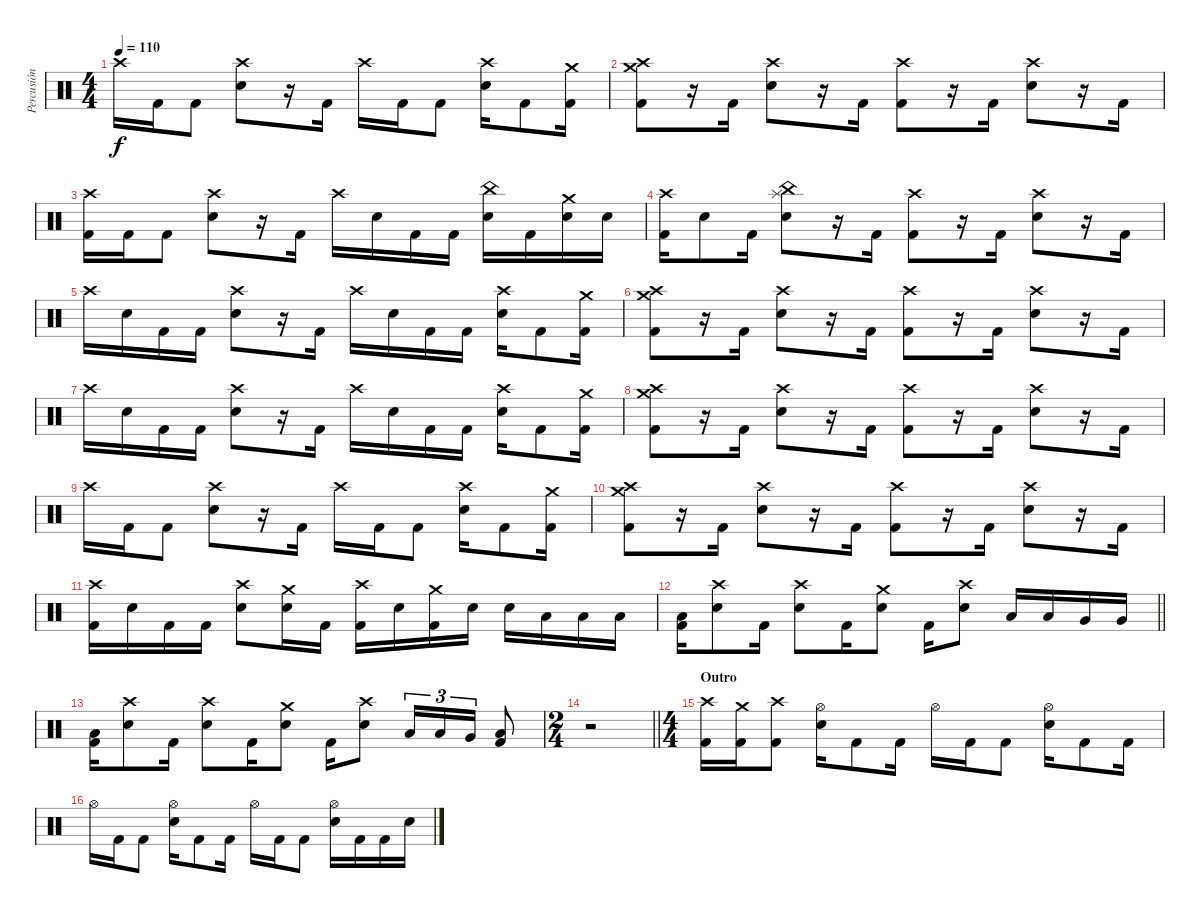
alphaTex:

\track ("Percusión" "Percusión") {instrument percussion}
\staff {score}
\articulation defaults
\ts (4 4)
\tempo 110
\clef neutral
\ks c "Crash high (hit)".16{dy f} "Kick (hit) 2".16 "Kick (hit) 2".8
("Crash high (hit)" "Snare (hit) 2").8 r.16 "Kick (hit) 2".16 "Crash high (hit)".16 "Kick (hit) 2".16 "Kick (hit) 2".8 ("Crash high (hit)" "Snare (hit) 2").16 "Kick (hit) 2".8 ("Crash medium (hit)" "Kick (hit) 2").16 |
("Crash high (hit)" "Crash medium (hit)" "Kick (hit) 2").8 r.16 "Kick (hit) 2".16 ("Crash high (hit)" "Snare (hit) 2").8 r.16 "Kick (hit) 2".16 ("Crash high (hit)" "Kick (hit) 2").8 r.16 "Kick (hit) 2".16 ("Crash high (hit)" "Snare (hit) 2").8 r.16 "Kick (hit) 2".16 |
("Crash high (hit)" "Kick (hit) 2").16 "Kick (hit) 2".16 "Kick (hit) 2".8 ("Crash high (hit)" "Snare (hit) 2").8 r.16 "Kick (hit) 2".16 "Crash high (hit)".16 "Snare (hit) 2".16 "Kick (hit) 2".16 "Kick (hit) 2".16 ("China (hit)" "Snare (hit) 2").16 "Kick (hit) 2".16 ("Crash medium (hit)" "Snare (hit) 2").16 "Snare (hit) 2".16 |
("Crash high (hit)" "Kick (hit) 2").16 "Snare (hit) 2".8 "Kick (hit) 2".16 ("Splash (hit)" "China (hit)" "Snare (hit) 2").8 r.16 "Kick (hit) 2".16 ("Crash high (hit)" "Kick (hit) 2").8 r.16 "Kick (hit) 2".16 ("Crash high (hit)" "Snare (hit) 2").8 r.16 "Kick (hit) 2".16 |
"Crash high (hit)".16 "Snare (hit) 2".16 "Kick (hit) 2".16 "Kick (hit) 2".16 ("Crash high (hit)" "Snare (hit) 2").8 r.16 "Kick (hit) 2".16 "Crash high (hit)".16 "Snare (hit) 2".16 "Kick (hit) 2".16 "Kick (hit) 2".16 ("Crash high (hit)" "Snare (hit) 2").16 "Kick (hit) 2".8 ("Crash medium (hit)" "Kick (hit) 2").16 |
("Crash high (hit)" "Crash medium (hit)" "Kick (hit) 2").8 r.16 "Kick (hit) 2".16 ("Crash high (hit)" "Snare (hit) 2").8 r.16 "Kick (hit) 2".16 ("Crash high (hit)" "Kick (hit) 2").8 r.16 "Kick (hit) 2".16 ("Crash high (hit)" "Snare (hit) 2").8 r.16 "Kick (hit) 2".16 |
"Crash high (hit)".16 "Snare (hit) 2".16 "Kick (hit) 2".16 "Kick (hit) 2".16 ("Crash high (hit)" "Snare (hit) 2").8 r.16 "Kick (hit) 2".16 "Crash high (hit)".16 "Snare (hit) 2".16 "Kick (hit) 2".16 "Kick (hit) 2".16 ("Crash high (hit)" "Snare (hit) 2").16 "Kick (hit) 2".8 ("Crash medium (hit)" "Kick (hit) 2").16 |
("Crash high (hit)" "Crash medium (hit)" "Kick (hit) 2").8 r.16 "Kick (hit) 2".16 ("Crash high (hit)" "Snare (hit) 2").8 r.16 "Kick (hit) 2".16 ("Crash high (hit)" "Kick (hit) 2").8 r.16 "Kick (hit) 2".16 ("Crash high (hit)" "Snare (hit) 2").8 r.16 "Kick (hit) 2".16 |
"Crash high (hit)".16 "Kick (hit) 2".16 "Kick (hit) 2".8 ("Crash high (hit)" "Snare (hit) 2").8 r.16 "Kick (hit) 2".16 "Crash high (hit)".16 "Kick (hit) 2".16 "Kick (hit) 2".8 ("Crash high (hit)" "Snare (hit) 2").16 "Kick (hit) 2".8 ("Crash medium (hit)" "Kick (hit) 2").16 |
("Crash high (hit)" "Crash medium (hit)" "Kick (hit) 2").8 r.16 "Kick (hit) 2".16 ("Crash high (hit)" "Snare (hit) 2").8 r.16 "Kick (hit) 2".16 ("Crash high (hit)" "Kick (hit) 2").8 r.16 "Kick (hit) 2".16 ("Crash high (hit)" "Snare (hit) 2").8 r.16 "Kick (hit) 2".16 |
("Crash high (hit)" "Kick (hit) 2").16 "Snare (hit) 2".16 "Kick (hit) 2".16 "Kick (hit) 2".16 ("Crash high (hit)" "Snare (hit) 2").8 ("Crash medium (hit)" "Snare (hit) 2").16 "Kick (hit) 2".16 ("Crash high (hit)" "Kick (hit) 2").16 "Snare (hit) 2".16 ("Crash medium (hit)" "Kick (hit) 2").16 "Snare (hit) 2".16 "Snare (hit) 2".16 "Low Tom (hit)".16 "Low Tom (hit)".16 "Low Floor Tom (hit)".16 |
\barLineRight lightlight
("Low Floor Tom (hit)" "Kick (hit) 2").16 ("Crash high (hit)" "Snare (hit) 2").8 "Kick (hit) 2".16 ("Crash high (hit)" "Snare (hit) 2").8 "Kick (hit) 2".16 ("Crash medium (hit)" "Snare (hit) 2").8 "Kick (hit) 2".16 ("Crash high (hit)" "Snare (hit) 2").8 "Low Tom (hit)".16 "Low Tom (hit)".16 "Very Low Tom (hit)".16 "Very Low Tom (hit)".16 |
("Low Floor Tom (hit)" "Kick (hit) 2").16 ("Crash high (hit)" "Snare (hit) 2").8 "Kick (hit) 2".16 ("Crash high (hit)" "Snare (hit) 2").8 "Kick (hit) 2".16 ("Crash medium (hit)" "Snare (hit) 2").8 "Kick (hit) 2".16 ("Crash high (hit)" "Snare (hit) 2").8 "Low Tom (hit)".16{tu (3 2)} "Low Tom (hit)".16{tu (3 2)} "Very Low Tom (hit)".16{tu (3 2)} ("Low Floor Tom (hit)" "Kick (hit) 2").8 |
\ts (2 4)
\barLineRight lightlight
r.2 |
\ts (4 4)
\section ("" "Outro")
("Crash high (hit)" "Kick (hit) 2").16 ("Crash medium (hit)" "Kick (hit) 2").16 ("Crash high (hit)" "Kick (hit) 2").8 ("Hi-Hat (open)" "Snare (hit) 2").16 "Kick (hit) 2".8 "Kick (hit) 2".16 "Hi-Hat (open)".16 "Kick (hit) 2".16 "Kick (hit) 2".8 ("Hi-Hat (open)" "Snare (hit) 2").16 "Kick (hit) 2".8 "Kick (hit) 2".16 |
"Hi-Hat (open)".16 "Kick (hit) 2".16 "Kick (hit) 2".8 ("Hi-Hat (open)" "Snare (hit) 2").16 "Kick (hit) 2".8 "Kick (hit) 2".16 "Hi-Hat (open)".16 "Kick (hit) 2".16 "Kick (hit) 2".8 ("Hi-Hat (open)" "Snare (hit) 2").16 "Kick (hit) 2".16 "Kick (hit) 2".16 "Snare (hit) 2".16
